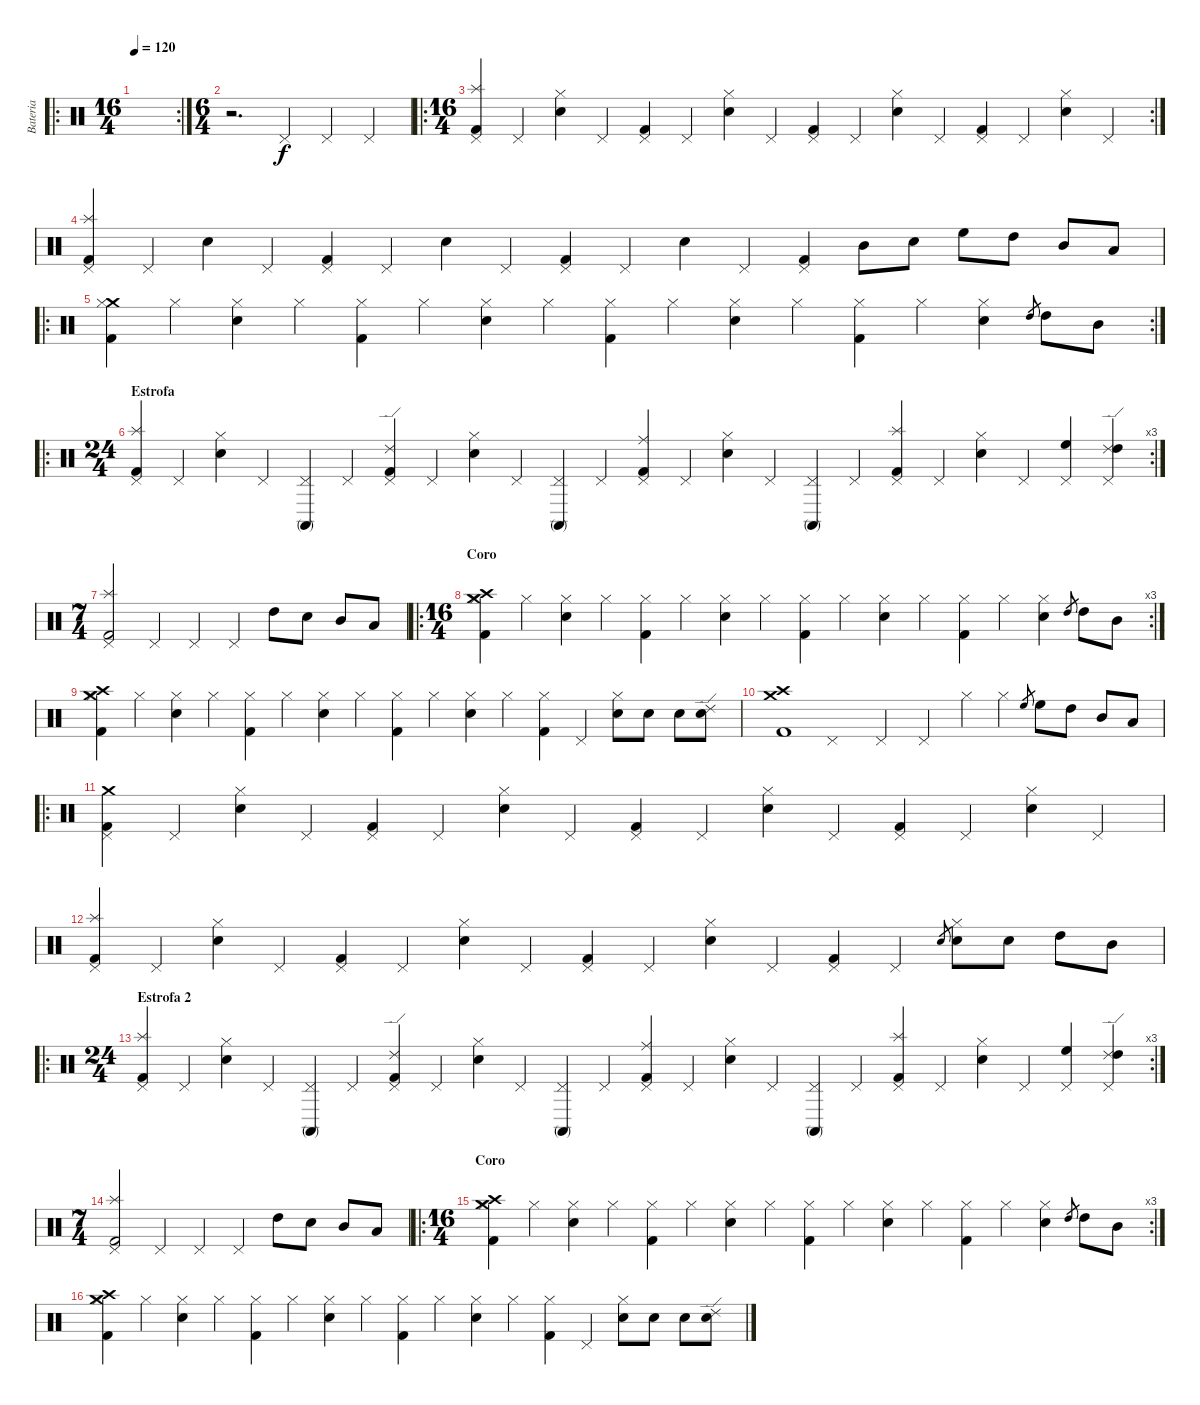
\track ("Bateria" "Bateria") {instrument percussion}
\staff {score}
\articulation defaults
\ro
\rc 2
\ts (16 4)
\tempo 120
\clef neutral
\ks c
|
\ts (6 4)
r.2{d} "Pedal Hi-Hat (hit)".4 "Pedal Hi-Hat (hit)".4 "Pedal Hi-Hat (hit)".4 |
\ro
\rc 2
\ts (16 4)
("Splash (hit)" "Pedal Hi-Hat (hit)" "Kick (hit) 2").4 "Pedal Hi-Hat (hit)".4 ("Hi-Hat (closed)" "Electric Snare (hit)").4 "Pedal Hi-Hat (hit)".4 ("Pedal Hi-Hat (hit)" "Kick (hit) 2").4 "Pedal Hi-Hat (hit)".4 ("Hi-Hat (closed)" "Electric Snare (hit)").4 "Pedal Hi-Hat (hit)".4 ("Pedal Hi-Hat (hit)" "Kick (hit) 2").4 "Pedal Hi-Hat (hit)".4 ("Hi-Hat (closed)" "Electric Snare (hit)").4 "Pedal Hi-Hat (hit)".4 ("Pedal Hi-Hat (hit)" "Kick (hit) 2").4 "Pedal Hi-Hat (hit)".4 ("Hi-Hat (closed)" "Electric Snare (hit)").4 "Pedal Hi-Hat (hit)".4 |
("Splash (hit)" "Pedal Hi-Hat (hit)" "Kick (hit) 2").4 "Pedal Hi-Hat (hit)".4 "Electric Snare (hit)".4 "Pedal Hi-Hat (hit)".4 ("Pedal Hi-Hat (hit)" "Kick (hit) 2").4 "Pedal Hi-Hat (hit)".4 "Electric Snare (hit)".4 "Pedal Hi-Hat (hit)".4 ("Pedal Hi-Hat (hit)" "Kick (hit) 2").4 "Pedal Hi-Hat (hit)".4 "Electric Snare (hit)".4 "Pedal Hi-Hat (hit)".4 ("Pedal Hi-Hat (hit)" "Kick (hit) 2").4 "Mid Tom (hit)".8 "Electric Snare (hit)".8 "High Floor Tom (hit)".8 "High Tom (hit)".8 "Mid Tom (hit)".8 "Low Tom (hit)".8 |
\ro
\rc 2
("Crash medium (hit)" "Hi-Hat (closed)" "Kick (hit) 2").4 "Hi-Hat (closed)".4 ("Hi-Hat (closed)" "Electric Snare (hit)").4 "Hi-Hat (closed)".4 ("Hi-Hat (closed)" "Kick (hit) 2").4 "Hi-Hat (closed)".4 ("Hi-Hat (closed)" "Electric Snare (hit)").4 "Hi-Hat (closed)".4 ("Hi-Hat (closed)" "Kick (hit) 2").4 "Hi-Hat (closed)".4 ("Hi-Hat (closed)" "Electric Snare (hit)").4 "Hi-Hat (closed)".4 ("Hi-Hat (closed)" "Kick (hit) 2").4 "Hi-Hat (closed)".4 ("Hi-Hat (closed)" "Electric Snare (hit)").4 "High Tom (hit)".8{gr} "High Tom (hit)".8 "Mid Tom (hit)".8 |
\ro
\rc 3
\ts (24 4)
\section ("" "Estrofa")
("Splash (hit)" "Pedal Hi-Hat (hit)" "Kick (hit) 2").4 "Pedal Hi-Hat (hit)".4 ("Hi-Hat (closed)" "Electric Snare (hit)").4 "Pedal Hi-Hat (hit)".4 ("Conga high (mute)" "Pedal Hi-Hat (hit)").4 "Pedal Hi-Hat (hit)".4 ("Ride (edge) 2" "Pedal Hi-Hat (hit)" "Kick (hit) 2").4 "Pedal Hi-Hat (hit)".4 ("Hi-Hat (closed)" "Electric Snare (hit)").4 "Pedal Hi-Hat (hit)".4 ("Conga high (mute)" "Pedal Hi-Hat (hit)").4 "Pedal Hi-Hat (hit)".4 ("Ride (middle)" "Pedal Hi-Hat (hit)" "Kick (hit) 2").4 "Pedal Hi-Hat (hit)".4 ("Hi-Hat (closed)" "Electric Snare (hit)").4 "Pedal Hi-Hat (hit)".4 ("Conga high (mute)" "Pedal Hi-Hat (hit)").4 "Pedal Hi-Hat (hit)".4 ("Splash (hit)" "Pedal Hi-Hat (hit)" "Kick (hit) 2").4 "Pedal Hi-Hat (hit)".4 ("Hi-Hat (closed)" "Electric Snare (hit)").4 "Pedal Hi-Hat (hit)".4 ("High Floor Tom (hit)" "Pedal Hi-Hat (hit)").4 ("Ride (edge) 2" "High Tom (hit)" "Pedal Hi-Hat (hit)").4 |
\ts (7 4)
("Splash (hit)" "Pedal Hi-Hat (hit)" "Kick (hit) 2").2 "Pedal Hi-Hat (hit)".4 "Pedal Hi-Hat (hit)".4 "Pedal Hi-Hat (hit)".4 "High Tom (hit)".8 "Electric Snare (hit)".8 "Mid Tom (hit)".8 "Low Tom (hit)".8 |
\ro
\rc 3
\ts (16 4)
\section ("" "Coro")
("Crash medium (hit)" "Crash high (hit)" "Hi-Hat (closed)" "Kick (hit) 2").4 "Hi-Hat (closed)".4 ("Hi-Hat (closed)" "Electric Snare (hit)").4 "Hi-Hat (closed)".4 ("Hi-Hat (closed)" "Kick (hit) 2").4 "Hi-Hat (closed)".4 ("Hi-Hat (closed)" "Electric Snare (hit)").4 "Hi-Hat (closed)".4 ("Hi-Hat (closed)" "Kick (hit) 2").4 "Hi-Hat (closed)".4 ("Hi-Hat (closed)" "Electric Snare (hit)").4 "Hi-Hat (closed)".4 ("Hi-Hat (closed)" "Kick (hit) 2").4 "Hi-Hat (closed)".4 ("Hi-Hat (closed)" "Electric Snare (hit)").4 "High Tom (hit)".8{gr} "High Tom (hit)".8 "Mid Tom (hit)".8 |
("Crash medium (hit)" "Crash high (hit)" "Hi-Hat (closed)" "Kick (hit) 2").4 "Hi-Hat (closed)".4 ("Hi-Hat (closed)" "Electric Snare (hit)").4 "Hi-Hat (closed)".4 ("Hi-Hat (closed)" "Kick (hit) 2").4 "Hi-Hat (closed)".4 ("Hi-Hat (closed)" "Electric Snare (hit)").4 "Hi-Hat (closed)".4 ("Hi-Hat (closed)" "Kick (hit) 2").4 "Hi-Hat (closed)".4 ("Hi-Hat (closed)" "Electric Snare (hit)").4 "Hi-Hat (closed)".4 ("Hi-Hat (closed)" "Kick (hit) 2").4 "Pedal Hi-Hat (hit)".4 ("Hi-Hat (closed)" "Electric Snare (hit)").8 "Electric Snare (hit)".8 "Electric Snare (hit)".8 ("Ride (edge) 2" "Electric Snare (hit)").8 |
("Crash medium (hit)" "Crash high (hit)" "Kick (hit) 2").1 "Pedal Hi-Hat (hit)".1 "Pedal Hi-Hat (hit)".2 "Pedal Hi-Hat (hit)".2 "Hi-Hat (closed)".4 "Hi-Hat (closed)".4 "High Floor Tom (hit)".8{gr} "High Floor Tom (hit)".8 "High Tom (hit)".8 "Mid Tom (hit)".8 "Low Tom (hit)".8 |
\ro
("Crash medium (hit)" "Pedal Hi-Hat (hit)" "Kick (hit) 2").4 "Pedal Hi-Hat (hit)".4 ("Hi-Hat (closed)" "Electric Snare (hit)").4 "Pedal Hi-Hat (hit)".4 ("Pedal Hi-Hat (hit)" "Kick (hit) 2").4 "Pedal Hi-Hat (hit)".4 ("Hi-Hat (closed)" "Electric Snare (hit)").4 "Pedal Hi-Hat (hit)".4 ("Pedal Hi-Hat (hit)" "Kick (hit) 2").4 "Pedal Hi-Hat (hit)".4 ("Hi-Hat (closed)" "Electric Snare (hit)").4 "Pedal Hi-Hat (hit)".4 ("Pedal Hi-Hat (hit)" "Kick (hit) 2").4 "Pedal Hi-Hat (hit)".4 ("Hi-Hat (closed)" "Electric Snare (hit)").4 "Pedal Hi-Hat (hit)".4 |
("Splash (hit)" "Pedal Hi-Hat (hit)" "Kick (hit) 2").4 "Pedal Hi-Hat (hit)".4 ("Hi-Hat (closed)" "Electric Snare (hit)").4 "Pedal Hi-Hat (hit)".4 ("Pedal Hi-Hat (hit)" "Kick (hit) 2").4 "Pedal Hi-Hat (hit)".4 ("Hi-Hat (closed)" "Electric Snare (hit)").4 "Pedal Hi-Hat (hit)".4 ("Pedal Hi-Hat (hit)" "Kick (hit) 2").4 "Pedal Hi-Hat (hit)".4 ("Hi-Hat (closed)" "Electric Snare (hit)").4 "Pedal Hi-Hat (hit)".4 ("Pedal Hi-Hat (hit)" "Kick (hit) 2").4 "Pedal Hi-Hat (hit)".4 "Electric Snare (hit)".8{gr} ("Hi-Hat (closed)" "Electric Snare (hit)").8 "Electric Snare (hit)".8 "High Tom (hit)".8 "Mid Tom (hit)".8 |
\ro
\rc 3
\ts (24 4)
\section ("" "Estrofa 2")
("Splash (hit)" "Pedal Hi-Hat (hit)" "Kick (hit) 2").4 "Pedal Hi-Hat (hit)".4 ("Hi-Hat (closed)" "Electric Snare (hit)").4 "Pedal Hi-Hat (hit)".4 ("Conga high (mute)" "Pedal Hi-Hat (hit)").4 "Pedal Hi-Hat (hit)".4 ("Ride (edge) 2" "Pedal Hi-Hat (hit)" "Kick (hit) 2").4 "Pedal Hi-Hat (hit)".4 ("Hi-Hat (closed)" "Electric Snare (hit)").4 "Pedal Hi-Hat (hit)".4 ("Conga high (mute)" "Pedal Hi-Hat (hit)").4 "Pedal Hi-Hat (hit)".4 ("Ride (middle)" "Pedal Hi-Hat (hit)" "Kick (hit) 2").4 "Pedal Hi-Hat (hit)".4 ("Hi-Hat (closed)" "Electric Snare (hit)").4 "Pedal Hi-Hat (hit)".4 ("Conga high (mute)" "Pedal Hi-Hat (hit)").4 "Pedal Hi-Hat (hit)".4 ("Splash (hit)" "Pedal Hi-Hat (hit)" "Kick (hit) 2").4 "Pedal Hi-Hat (hit)".4 ("Hi-Hat (closed)" "Electric Snare (hit)").4 "Pedal Hi-Hat (hit)".4 ("High Floor Tom (hit)" "Pedal Hi-Hat (hit)").4 ("Ride (edge) 2" "High Tom (hit)" "Pedal Hi-Hat (hit)").4 |
\ts (7 4)
("Splash (hit)" "Pedal Hi-Hat (hit)" "Kick (hit) 2").2 "Pedal Hi-Hat (hit)".4 "Pedal Hi-Hat (hit)".4 "Pedal Hi-Hat (hit)".4 "High Tom (hit)".8 "Electric Snare (hit)".8 "Mid Tom (hit)".8 "Low Tom (hit)".8 |
\ro
\rc 3
\ts (16 4)
\section ("" "Coro")
("Crash medium (hit)" "Crash high (hit)" "Hi-Hat (closed)" "Kick (hit) 2").4 "Hi-Hat (closed)".4 ("Hi-Hat (closed)" "Electric Snare (hit)").4 "Hi-Hat (closed)".4 ("Hi-Hat (closed)" "Kick (hit) 2").4 "Hi-Hat (closed)".4 ("Hi-Hat (closed)" "Electric Snare (hit)").4 "Hi-Hat (closed)".4 ("Hi-Hat (closed)" "Kick (hit) 2").4 "Hi-Hat (closed)".4 ("Hi-Hat (closed)" "Electric Snare (hit)").4 "Hi-Hat (closed)".4 ("Hi-Hat (closed)" "Kick (hit) 2").4 "Hi-Hat (closed)".4 ("Hi-Hat (closed)" "Electric Snare (hit)").4 "High Tom (hit)".8{gr} "High Tom (hit)".8 "Mid Tom (hit)".8 |
("Crash medium (hit)" "Crash high (hit)" "Hi-Hat (closed)" "Kick (hit) 2").4 "Hi-Hat (closed)".4 ("Hi-Hat (closed)" "Electric Snare (hit)").4 "Hi-Hat (closed)".4 ("Hi-Hat (closed)" "Kick (hit) 2").4 "Hi-Hat (closed)".4 ("Hi-Hat (closed)" "Electric Snare (hit)").4 "Hi-Hat (closed)".4 ("Hi-Hat (closed)" "Kick (hit) 2").4 "Hi-Hat (closed)".4 ("Hi-Hat (closed)" "Electric Snare (hit)").4 "Hi-Hat (closed)".4 ("Hi-Hat (closed)" "Kick (hit) 2").4 "Pedal Hi-Hat (hit)".4 ("Hi-Hat (closed)" "Electric Snare (hit)").8 "Electric Snare (hit)".8 "Electric Snare (hit)".8 ("Ride (edge) 2" "Electric Snare (hit)").8
